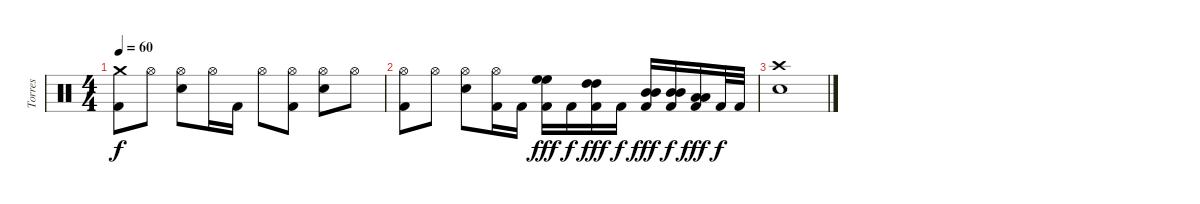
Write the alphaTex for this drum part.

\track ("Torres" "Torres") {instrument percussion}
\staff {score}
\articulation defaults
\ts (4 4)
\tempo 60
\clef neutral
\ks c
("Crash medium (hit)" "Kick (hit) 2").8{dy f} "Hi-Hat (open)".8 ("Hi-Hat (open)" "Electric Snare (hit)").8 "Hi-Hat (open)".16 "Kick (hit) 2".16 "Hi-Hat (open)".8 ("Hi-Hat (open)" "Kick (hit) 2").8 ("Hi-Hat (open)" "Electric Snare (hit)").8 "Hi-Hat (open)".8 |
("Hi-Hat (open)" "Kick (hit) 2").8 "Hi-Hat (open)".8 ("Hi-Hat (open)" "Electric Snare (hit)").8 ("Hi-Hat (open)" "Kick (hit) 2").16 "Kick (hit) 2".16 ("High Floor Tom (hit)" "High Floor Tom (hit)" "Kick (hit) 2").16{dy fff} "Kick (hit) 2".16{dy f} ("High Tom (hit)" "High Tom (hit)" "Kick (hit) 2").16{dy fff} "Kick (hit) 2".16{dy f} ("Mid Tom (hit)" "Mid Tom (hit)" "Kick (hit) 2").16{dy fff} ("Mid Tom (hit)" "Mid Tom (hit)" "Kick (hit) 2").16{dy f} ("Low Tom (hit)" "Low Tom (hit)" "Kick (hit) 2").16{dy fff} "Kick (hit) 2".32{dy f} "Kick (hit) 2".32 |
("Crash high (hit)" "Electric Snare (hit)").1
